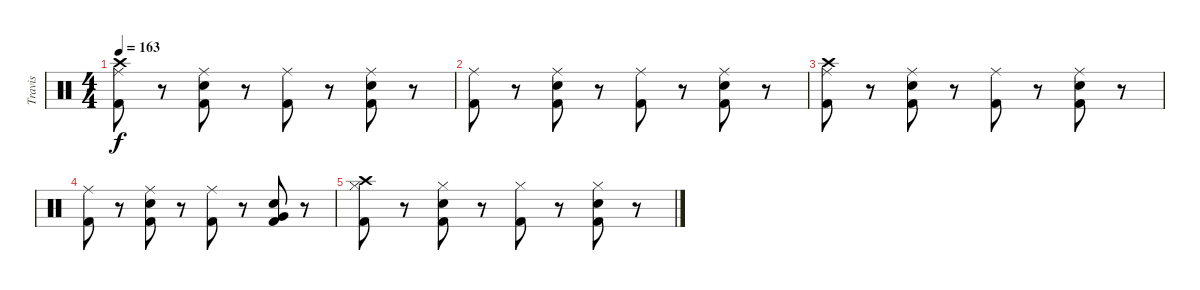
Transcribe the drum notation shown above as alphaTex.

\track ("Travis" "Travis") {instrument percussion}
\staff {score}
\articulation defaults
\ts (4 4)
\tempo 163
\clef neutral
\ks c
("Crash high (hit)" "Ride (middle)" "Kick (hit) 2").8{dy f} r.8 ("Ride (middle)" "Electric Snare (hit)" "Kick (hit) 2").8 r.8 ("Ride (middle)" "Kick (hit) 2").8 r.8 ("Ride (middle)" "Electric Snare (hit)" "Kick (hit) 2").8 r.8 |
("Ride (middle)" "Kick (hit) 2").8 r.8 ("Ride (middle)" "Electric Snare (hit)" "Kick (hit) 2").8 r.8 ("Ride (middle)" "Kick (hit) 2").8 r.8 ("Ride (middle)" "Electric Snare (hit)" "Kick (hit) 2").8 r.8 |
("Crash high (hit)" "Ride (middle)" "Kick (hit) 2").8 r.8 ("Ride (middle)" "Electric Snare (hit)" "Kick (hit) 2").8 r.8 ("Ride (middle)" "Kick (hit) 2").8 r.8 ("Ride (middle)" "Electric Snare (hit)" "Kick (hit) 2").8 r.8 |
("Ride (middle)" "Kick (hit) 2").8 r.8 ("Ride (middle)" "Electric Snare (hit)" "Kick (hit) 2").8 r.8 ("Ride (middle)" "Kick (hit) 2").8 r.8 ("Very Low Tom (hit)" "Electric Snare (hit)" "Kick (hit) 2").8 r.8 |
("Crash high (hit)" "Hi-Hat (closed)" "Kick (hit) 2").8 r.8 ("Hi-Hat (closed)" "Electric Snare (hit)" "Kick (hit) 2").8 r.8 ("Hi-Hat (closed)" "Kick (hit) 2").8 r.8 ("Hi-Hat (closed)" "Electric Snare (hit)" "Kick (hit) 2").8 r.8
